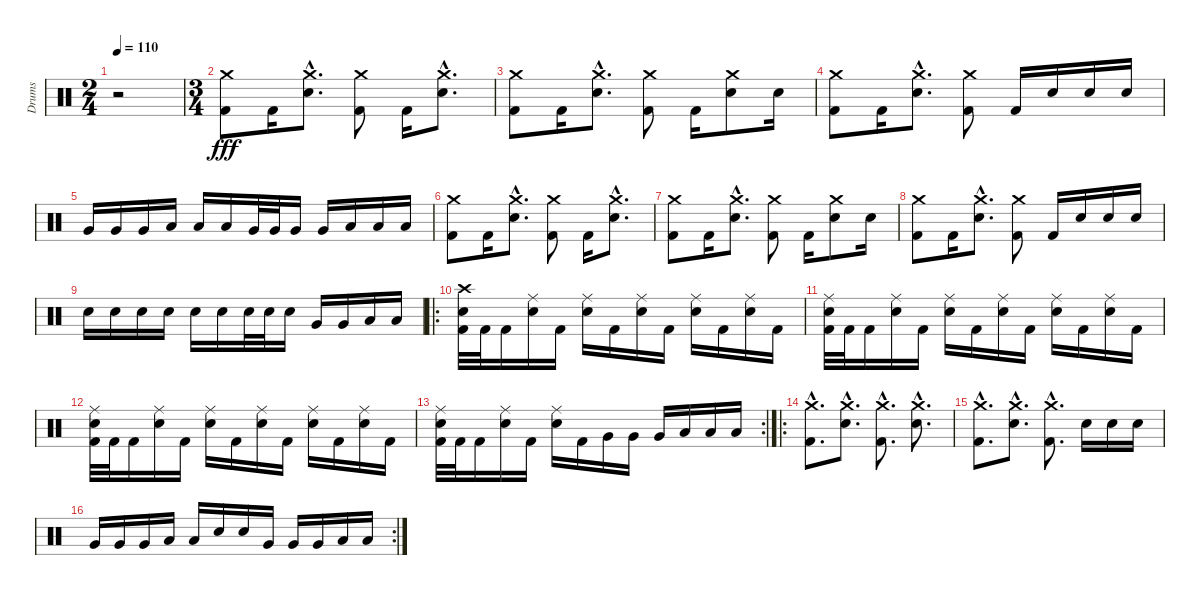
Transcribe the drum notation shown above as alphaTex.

\track ("Drums" "Drums") {instrument percussion}
\staff {score}
\articulation defaults
\ts (2 4)
\tempo 110
\clef neutral
\ks c
r.2{dy fff} |
\ts (3 4)
("Crash medium (hit)" "Kick (hit) 2").8 "Kick (hit) 2".16 ("Crash medium (hit)"{hac} "Electric Snare (hit)"{hac}).8{d} ("Crash medium (hit)" "Kick (hit) 2").8 "Kick (hit) 2".16 ("Crash medium (hit)"{hac} "Electric Snare (hit)"{hac}).8{d} |
("Crash medium (hit)" "Kick (hit) 2").8 "Kick (hit) 2".16 ("Crash medium (hit)"{hac} "Electric Snare (hit)"{hac}).8{d} ("Crash medium (hit)" "Kick (hit) 2").8 "Kick (hit) 2".16 ("Crash medium (hit)" "Electric Snare (hit)").8 "Electric Snare (hit)".16 |
("Crash medium (hit)" "Kick (hit) 2").8 "Kick (hit) 2".16 ("Crash medium (hit)"{hac} "Electric Snare (hit)"{hac}).8{d} ("Crash medium (hit)" "Kick (hit) 2").8 "Kick (hit) 2".16 "Electric Snare (hit)".16 "Electric Snare (hit)".16 "Electric Snare (hit)".16 |
"Very Low Tom (hit)".16 "Very Low Tom (hit)".16 "Very Low Tom (hit)".16 "Low Tom (hit)".16 "Low Tom (hit)".16 "Low Tom (hit)".16 "Very Low Tom (hit)".32 "Very Low Tom (hit)".32 "Very Low Tom (hit)".16 "Very Low Tom (hit)".16 "Low Tom (hit)".16 "Low Tom (hit)".16 "Low Tom (hit)".16 |
("Crash medium (hit)" "Kick (hit) 2").8 "Kick (hit) 2".16 ("Crash medium (hit)"{hac} "Electric Snare (hit)"{hac}).8{d} ("Crash medium (hit)" "Kick (hit) 2").8 "Kick (hit) 2".16 ("Crash medium (hit)"{hac} "Electric Snare (hit)"{hac}).8{d} |
("Crash medium (hit)" "Kick (hit) 2").8 "Kick (hit) 2".16 ("Crash medium (hit)"{hac} "Electric Snare (hit)"{hac}).8{d} ("Crash medium (hit)" "Kick (hit) 2").8 "Kick (hit) 2".16 ("Crash medium (hit)" "Electric Snare (hit)").8 "Electric Snare (hit)".16 |
("Crash medium (hit)" "Kick (hit) 2").8 "Kick (hit) 2".16 ("Crash medium (hit)"{hac} "Electric Snare (hit)"{hac}).8{d} ("Crash medium (hit)" "Kick (hit) 2").8 "Kick (hit) 2".16 "Electric Snare (hit)".16 "Electric Snare (hit)".16 "Electric Snare (hit)".16 |
"Electric Snare (hit)".16 "Electric Snare (hit)".16 "Electric Snare (hit)".16 "Electric Snare (hit)".16 "Electric Snare (hit)".16 "Electric Snare (hit)".16 "Electric Snare (hit)".32 "Electric Snare (hit)".32 "Electric Snare (hit)".16 "Very Low Tom (hit)".16 "Very Low Tom (hit)".16 "Low Tom (hit)".16 "Low Tom (hit)".16 |
\ro
("Crash high (hit)" "Electric Snare (hit)" "Kick (hit) 2").32 "Kick (hit) 2".32 "Kick (hit) 2".16 ("Ride (middle)" "Electric Snare (hit)").16 "Kick (hit) 2".16 ("Ride (middle)" "Electric Snare (hit)").16 "Kick (hit) 2".16 ("Ride (middle)" "Electric Snare (hit)").16 "Kick (hit) 2".16 ("Ride (middle)" "Electric Snare (hit)").16 "Kick (hit) 2".16 ("Ride (middle)" "Electric Snare (hit)").16 "Kick (hit) 2".16 |
("Ride (middle)" "Electric Snare (hit)" "Kick (hit) 2").32 "Kick (hit) 2".32 "Kick (hit) 2".16 ("Ride (middle)" "Electric Snare (hit)").16 "Kick (hit) 2".16 ("Ride (middle)" "Electric Snare (hit)").16 "Kick (hit) 2".16 ("Ride (middle)" "Electric Snare (hit)").16 "Kick (hit) 2".16 ("Ride (middle)" "Electric Snare (hit)").16 "Kick (hit) 2".16 ("Ride (middle)" "Electric Snare (hit)").16 "Kick (hit) 2".16 |
("Ride (middle)" "Electric Snare (hit)" "Kick (hit) 2").32 "Kick (hit) 2".32 "Kick (hit) 2".16 ("Ride (middle)" "Electric Snare (hit)").16 "Kick (hit) 2".16 ("Ride (middle)" "Electric Snare (hit)").16 "Kick (hit) 2".16 ("Ride (middle)" "Electric Snare (hit)").16 "Kick (hit) 2".16 ("Ride (middle)" "Electric Snare (hit)").16 "Kick (hit) 2".16 ("Ride (middle)" "Electric Snare (hit)").16 "Kick (hit) 2".16 |
\rc 2
("Ride (middle)" "Electric Snare (hit)" "Kick (hit) 2").32 "Kick (hit) 2".32 "Kick (hit) 2".16 ("Ride (middle)" "Electric Snare (hit)").16 "Kick (hit) 2".16 ("Ride (middle)" "Electric Snare (hit)").16 "Kick (hit) 2".16 "Very Low Tom (hit)".16 "Very Low Tom (hit)".16 "Very Low Tom (hit)".16 "Low Tom (hit)".16 "Low Tom (hit)".16 "Low Tom (hit)".16 |
\ro
("Crash medium (hit)"{hac} "Kick (hit) 2"{hac}).8{d} ("Crash medium (hit)"{hac} "Electric Snare (hit)"{hac}).8{d} ("Crash medium (hit)"{hac} "Kick (hit) 2"{hac}).8{d} ("Crash medium (hit)"{hac} "Electric Snare (hit)"{hac}).8{d} |
("Crash medium (hit)"{hac} "Kick (hit) 2"{hac}).8{d} ("Crash medium (hit)"{hac} "Electric Snare (hit)"{hac}).8{d} ("Crash medium (hit)"{hac} "Kick (hit) 2"{hac}).8{d} "Electric Snare (hit)".16 "Electric Snare (hit)".16 "Electric Snare (hit)".16 |
\rc 2 "Very Low Tom (hit)".16 "Very Low Tom (hit)".16 "Very Low Tom (hit)".16 "Low Tom (hit)".16 "Low Tom (hit)".16 "Electric Snare (hit)".16 "Electric Snare (hit)".16 "Very Low Tom (hit)".16 "Very Low Tom (hit)".16 "Very Low Tom (hit)".16 "Low Tom (hit)".16 "Low Tom (hit)".16
